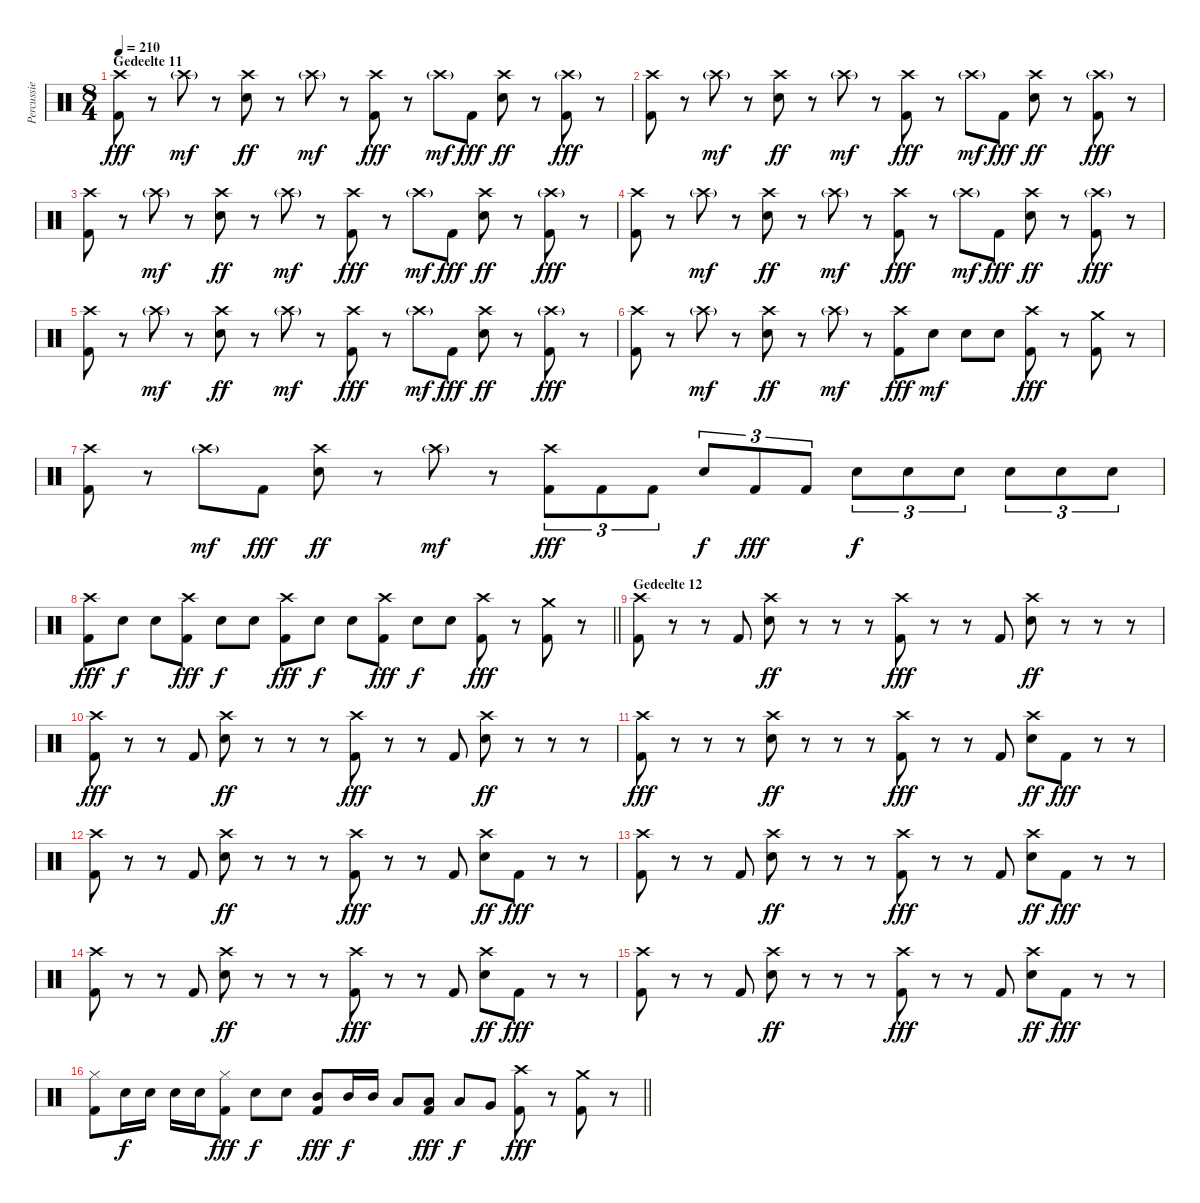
\track ("Percussie" "Percussie") {instrument percussion}
\staff {score}
\articulation defaults
\ts (8 4)
\section ("" "Gedeelte 11")
\tempo 210
\clef neutral
\ks c
("Crash high (hit)" "Kick (hit) 2").8{dy fff} r.8 "Crash high (hit)"{g}.8{dy mf} r.8 ("Crash high (hit)" "Snare (hit) 2").8{dy ff} r.8 "Crash high (hit)"{g}.8{dy mf} r.8 ("Crash high (hit)" "Kick (hit) 2").8{dy fff} r.8 "Crash high (hit)"{g}.8{dy mf} "Kick (hit) 2".8{dy fff} ("Crash high (hit)" "Snare (hit) 2").8{dy ff} r.8 ("Crash high (hit)"{g} "Kick (hit) 2").8{dy fff} r.8 |
("Crash high (hit)" "Kick (hit) 2").8 r.8 "Crash high (hit)"{g}.8{dy mf} r.8 ("Crash high (hit)" "Snare (hit) 2").8{dy ff} r.8 "Crash high (hit)"{g}.8{dy mf} r.8 ("Crash high (hit)" "Kick (hit) 2").8{dy fff} r.8 "Crash high (hit)"{g}.8{dy mf} "Kick (hit) 2".8{dy fff} ("Crash high (hit)" "Snare (hit) 2").8{dy ff} r.8 ("Crash high (hit)"{g} "Kick (hit) 2").8{dy fff} r.8 |
("Crash high (hit)" "Kick (hit) 2").8 r.8 "Crash high (hit)"{g}.8{dy mf} r.8 ("Crash high (hit)" "Snare (hit) 2").8{dy ff} r.8 "Crash high (hit)"{g}.8{dy mf} r.8 ("Crash high (hit)" "Kick (hit) 2").8{dy fff} r.8 "Crash high (hit)"{g}.8{dy mf} "Kick (hit) 2".8{dy fff} ("Crash high (hit)" "Snare (hit) 2").8{dy ff} r.8 ("Crash high (hit)"{g} "Kick (hit) 2").8{dy fff} r.8 |
("Crash high (hit)" "Kick (hit) 2").8 r.8 "Crash high (hit)"{g}.8{dy mf} r.8 ("Crash high (hit)" "Snare (hit) 2").8{dy ff} r.8 "Crash high (hit)"{g}.8{dy mf} r.8 ("Crash high (hit)" "Kick (hit) 2").8{dy fff} r.8 "Crash high (hit)"{g}.8{dy mf} "Kick (hit) 2".8{dy fff} ("Crash high (hit)" "Snare (hit) 2").8{dy ff} r.8 ("Crash high (hit)"{g} "Kick (hit) 2").8{dy fff} r.8 |
("Crash high (hit)" "Kick (hit) 2").8 r.8 "Crash high (hit)"{g}.8{dy mf} r.8 ("Crash high (hit)" "Snare (hit) 2").8{dy ff} r.8 "Crash high (hit)"{g}.8{dy mf} r.8 ("Crash high (hit)" "Kick (hit) 2").8{dy fff} r.8 "Crash high (hit)"{g}.8{dy mf} "Kick (hit) 2".8{dy fff} ("Crash high (hit)" "Snare (hit) 2").8{dy ff} r.8 ("Crash high (hit)"{g} "Kick (hit) 2").8{dy fff} r.8 |
("Crash high (hit)" "Kick (hit) 2").8 r.8 "Crash high (hit)"{g}.8{dy mf} r.8 ("Crash high (hit)" "Snare (hit) 2").8{dy ff} r.8 "Crash high (hit)"{g}.8{dy mf} r.8 ("Crash high (hit)" "Kick (hit) 2").8{dy fff} "Snare (hit) 2".8{dy mf} "Snare (hit) 2".8 "Snare (hit) 2".8 ("Crash high (hit)" "Kick (hit) 2").8{dy fff} r.8 ("Crash medium (hit)" "Kick (hit) 2").8 r.8 |
("Crash high (hit)" "Kick (hit) 2").8 r.8 "Crash high (hit)"{g}.8{dy mf} "Kick (hit) 2".8{dy fff} ("Crash high (hit)" "Snare (hit) 2").8{dy ff} r.8 "Crash high (hit)"{g}.8{dy mf} r.8 ("Crash high (hit)" "Kick (hit) 2").8{tu (3 2) dy fff} "Kick (hit) 2".8{tu (3 2)} "Kick (hit) 2".8{tu (3 2)} "Snare (hit) 2".8{tu (3 2) dy f} "Kick (hit) 2".8{tu (3 2) dy fff} "Kick (hit) 2".8{tu (3 2)} "Snare (hit) 2".8{tu (3 2) dy f} "Snare (hit) 2".8{tu (3 2)} "Snare (hit) 2".8{tu (3 2)} "Snare (hit) 2".8{tu (3 2)} "Snare (hit) 2".8{tu (3 2)} "Snare (hit) 2".8{tu (3 2)} |
\barLineRight lightlight
("Crash high (hit)" "Kick (hit) 2").8{dy fff} "Snare (hit) 2".8{dy f} "Snare (hit) 2".8 ("Crash high (hit)" "Kick (hit) 2").8{dy fff} "Snare (hit) 2".8{dy f} "Snare (hit) 2".8 ("Crash high (hit)" "Kick (hit) 2").8{dy fff} "Snare (hit) 2".8{dy f} "Snare (hit) 2".8 ("Crash high (hit)" "Kick (hit) 2").8{dy fff} "Snare (hit) 2".8{dy f} "Snare (hit) 2".8 ("Crash high (hit)" "Kick (hit) 2").8{dy fff} r.8 ("Crash medium (hit)" "Kick (hit) 2").8 r.8 |
\section ("" "Gedeelte 12")
("Crash high (hit)" "Kick (hit) 2").8 r.8 r.8 "Kick (hit) 2".8 ("Crash high (hit)" "Snare (hit) 2").8{dy ff} r.8 r.8 r.8 ("Crash high (hit)" "Kick (hit) 2").8{dy fff} r.8 r.8 "Kick (hit) 2".8 ("Crash high (hit)" "Snare (hit) 2").8{dy ff} r.8 r.8 r.8 |
("Crash high (hit)" "Kick (hit) 2").8{dy fff} r.8 r.8 "Kick (hit) 2".8 ("Crash high (hit)" "Snare (hit) 2").8{dy ff} r.8 r.8 r.8 ("Crash high (hit)" "Kick (hit) 2").8{dy fff} r.8 r.8 "Kick (hit) 2".8 ("Crash high (hit)" "Snare (hit) 2").8{dy ff} r.8 r.8 r.8 |
("Crash high (hit)" "Kick (hit) 2").8{dy fff} r.8 r.8 r.8 ("Crash high (hit)" "Snare (hit) 2").8{dy ff} r.8 r.8 r.8 ("Crash high (hit)" "Kick (hit) 2").8{dy fff} r.8 r.8 "Kick (hit) 2".8 ("Crash high (hit)" "Snare (hit) 2").8{dy ff} "Kick (hit) 2".8{dy fff} r.8 r.8 |
("Crash high (hit)" "Kick (hit) 2").8 r.8 r.8 "Kick (hit) 2".8 ("Crash high (hit)" "Snare (hit) 2").8{dy ff} r.8 r.8 r.8 ("Crash high (hit)" "Kick (hit) 2").8{dy fff} r.8 r.8 "Kick (hit) 2".8 ("Crash high (hit)" "Snare (hit) 2").8{dy ff} "Kick (hit) 2".8{dy fff} r.8 r.8 |
("Crash high (hit)" "Kick (hit) 2").8 r.8 r.8 "Kick (hit) 2".8 ("Crash high (hit)" "Snare (hit) 2").8{dy ff} r.8 r.8 r.8 ("Crash high (hit)" "Kick (hit) 2").8{dy fff} r.8 r.8 "Kick (hit) 2".8 ("Crash high (hit)" "Snare (hit) 2").8{dy ff} "Kick (hit) 2".8{dy fff} r.8 r.8 |
("Crash high (hit)" "Kick (hit) 2").8 r.8 r.8 "Kick (hit) 2".8 ("Crash high (hit)" "Snare (hit) 2").8{dy ff} r.8 r.8 r.8 ("Crash high (hit)" "Kick (hit) 2").8{dy fff} r.8 r.8 "Kick (hit) 2".8 ("Crash high (hit)" "Snare (hit) 2").8{dy ff} "Kick (hit) 2".8{dy fff} r.8 r.8 |
("Crash high (hit)" "Kick (hit) 2").8 r.8 r.8 "Kick (hit) 2".8 ("Crash high (hit)" "Snare (hit) 2").8{dy ff} r.8 r.8 r.8 ("Crash high (hit)" "Kick (hit) 2").8{dy fff} r.8 r.8 "Kick (hit) 2".8 ("Crash high (hit)" "Snare (hit) 2").8{dy ff} "Kick (hit) 2".8{dy fff} r.8 r.8 |
\barLineRight lightlight
("Hi-Hat (closed)" "Kick (hit) 2").8 "Snare (hit) 2".16{dy f} "Snare (hit) 2".16 "Snare (hit) 2".16 "Snare (hit) 2".16 ("Hi-Hat (closed)" "Kick (hit) 2").8{dy fff} "Snare (hit) 2".8{dy f} "Snare (hit) 2".8 ("Mid Tom (hit)" "Kick (hit) 2").8{dy fff} "Mid Tom (hit)".16{dy f} "Mid Tom (hit)".16 "Low Tom (hit)".8 ("Low Tom (hit)" "Kick (hit) 2").8{dy fff} "Low Tom (hit)".8{dy f} "Very Low Tom (hit)".8 ("Crash high (hit)" "Kick (hit) 2").8{dy fff} r.8 ("Crash medium (hit)" "Kick (hit) 2").8 r.8
